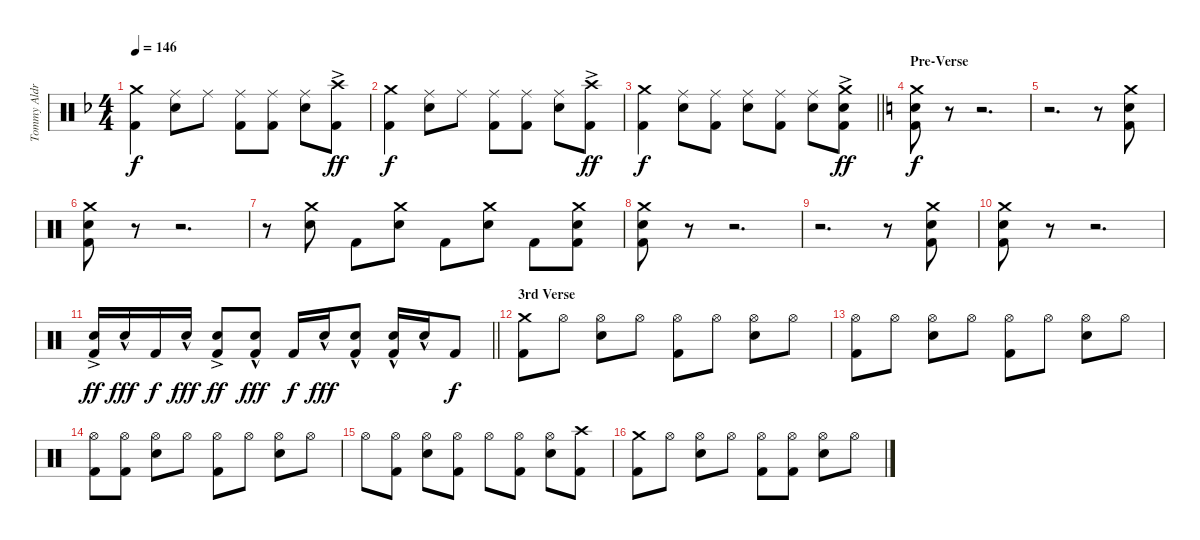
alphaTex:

\track ("Tommy Aldridge Drums" "Tommy Aldr") {instrument percussion}
\staff {score}
\articulation defaults
\ts (4 4)
\tempo 146
\clef neutral
\ks dminor
("Crash medium (hit)" "Kick (hit) 2").4{dy f} ("Ride (middle)" "Electric Snare (hit)").8 "Ride (middle)".8 ("Ride (middle)" "Kick (hit) 2").8 ("Ride (middle)" "Kick (hit) 2").8 ("Ride (middle)" "Electric Snare (hit)").8 ("Crash high (hit)"{ac} "Kick (hit) 2"{ac}).8{dy ff} |
("Crash medium (hit)" "Kick (hit) 2").4{dy f} ("Ride (middle)" "Electric Snare (hit)").8 "Ride (middle)".8 ("Ride (middle)" "Kick (hit) 2").8 ("Ride (middle)" "Kick (hit) 2").8 ("Ride (middle)" "Electric Snare (hit)").8 ("Crash high (hit)"{ac} "Kick (hit) 2"{ac}).8{dy ff} |
\barLineRight lightlight
("Crash medium (hit)" "Kick (hit) 2").4{dy f} ("Ride (middle)" "Electric Snare (hit)").8 ("Ride (middle)" "Kick (hit) 2").8 ("Ride (middle)" "Electric Snare (hit)").8 ("Ride (middle)" "Kick (hit) 2").8 ("Ride (middle)" "Electric Snare (hit)").8 ("Crash medium (hit)"{ac} "Electric Snare (hit)"{ac} "Kick (hit) 2"{ac}).8{dy ff} |
\section ("" "Pre-Verse")
\ks aminor
("Crash medium (hit)" "Electric Snare (hit)" "Kick (hit) 2").8{dy f} r.8 r.2{d} |
r.2{d} r.8 ("Crash medium (hit)" "Electric Snare (hit)" "Kick (hit) 2").8 |
("Crash medium (hit)" "Electric Snare (hit)" "Kick (hit) 2").8 r.8 r.2{d} |
r.8 ("Crash medium (hit)" "Electric Snare (hit)").8 "Kick (hit) 2".8 ("Crash medium (hit)" "Electric Snare (hit)").8 "Kick (hit) 2".8 ("Crash medium (hit)" "Electric Snare (hit)").8 "Kick (hit) 2".8 ("Crash medium (hit)" "Electric Snare (hit)" "Kick (hit) 2").8 |
("Crash medium (hit)" "Electric Snare (hit)" "Kick (hit) 2").8 r.8 r.2{d} |
r.2{d} r.8 ("Crash medium (hit)" "Electric Snare (hit)" "Kick (hit) 2").8 |
("Crash medium (hit)" "Electric Snare (hit)" "Kick (hit) 2").8 r.8 r.2{d} |
\barLineRight lightlight
("Electric Snare (hit)"{ac} "Kick (hit) 2").16{dy ff} "Electric Snare (hit)"{hac}.16{dy fff} "Kick (hit) 2".16{dy f} "Electric Snare (hit)"{hac}.16{dy fff} ("Electric Snare (hit)"{ac} "Kick (hit) 2").8{dy ff} ("Electric Snare (hit)"{hac} "Kick (hit) 2").8{dy fff} "Kick (hit) 2".16{dy f} "Electric Snare (hit)"{hac}.16{dy fff} ("Electric Snare (hit)"{hac} "Kick (hit) 2").8 ("Electric Snare (hit)"{hac} "Kick (hit) 2").16 "Electric Snare (hit)"{hac}.16 "Kick (hit) 2".8{dy f} |
\section ("" "3rd Verse")
("Crash medium (hit)" "Kick (hit) 2").8 "Hi-Hat (open)".8 ("Hi-Hat (open)" "Electric Snare (hit)").8 "Hi-Hat (open)".8 ("Hi-Hat (open)" "Kick (hit) 2").8 "Hi-Hat (open)".8 ("Hi-Hat (open)" "Electric Snare (hit)").8 "Hi-Hat (open)".8 |
("Hi-Hat (open)" "Kick (hit) 2").8 "Hi-Hat (open)".8 ("Hi-Hat (open)" "Electric Snare (hit)").8 "Hi-Hat (open)".8 ("Hi-Hat (open)" "Kick (hit) 2").8 "Hi-Hat (open)".8 ("Hi-Hat (open)" "Electric Snare (hit)").8 "Hi-Hat (open)".8 |
("Hi-Hat (open)" "Kick (hit) 2").8 ("Hi-Hat (open)" "Kick (hit) 2").8 ("Hi-Hat (open)" "Electric Snare (hit)").8 "Hi-Hat (open)".8 ("Hi-Hat (open)" "Kick (hit) 2").8 "Hi-Hat (open)".8 ("Hi-Hat (open)" "Electric Snare (hit)").8 "Hi-Hat (open)".8 |
"Hi-Hat (open)".8 ("Hi-Hat (open)" "Kick (hit) 2").8 ("Hi-Hat (open)" "Electric Snare (hit)").8 ("Hi-Hat (open)" "Kick (hit) 2").8 "Hi-Hat (open)".8 ("Hi-Hat (open)" "Kick (hit) 2").8 ("Hi-Hat (open)" "Electric Snare (hit)").8 ("Crash high (hit)" "Kick (hit) 2").8 |
("Crash medium (hit)" "Kick (hit) 2").8 "Hi-Hat (open)".8 ("Hi-Hat (open)" "Electric Snare (hit)").8 "Hi-Hat (open)".8 ("Hi-Hat (open)" "Kick (hit) 2").8 ("Hi-Hat (open)" "Kick (hit) 2").8 ("Hi-Hat (open)" "Electric Snare (hit)").8 "Hi-Hat (open)".8
